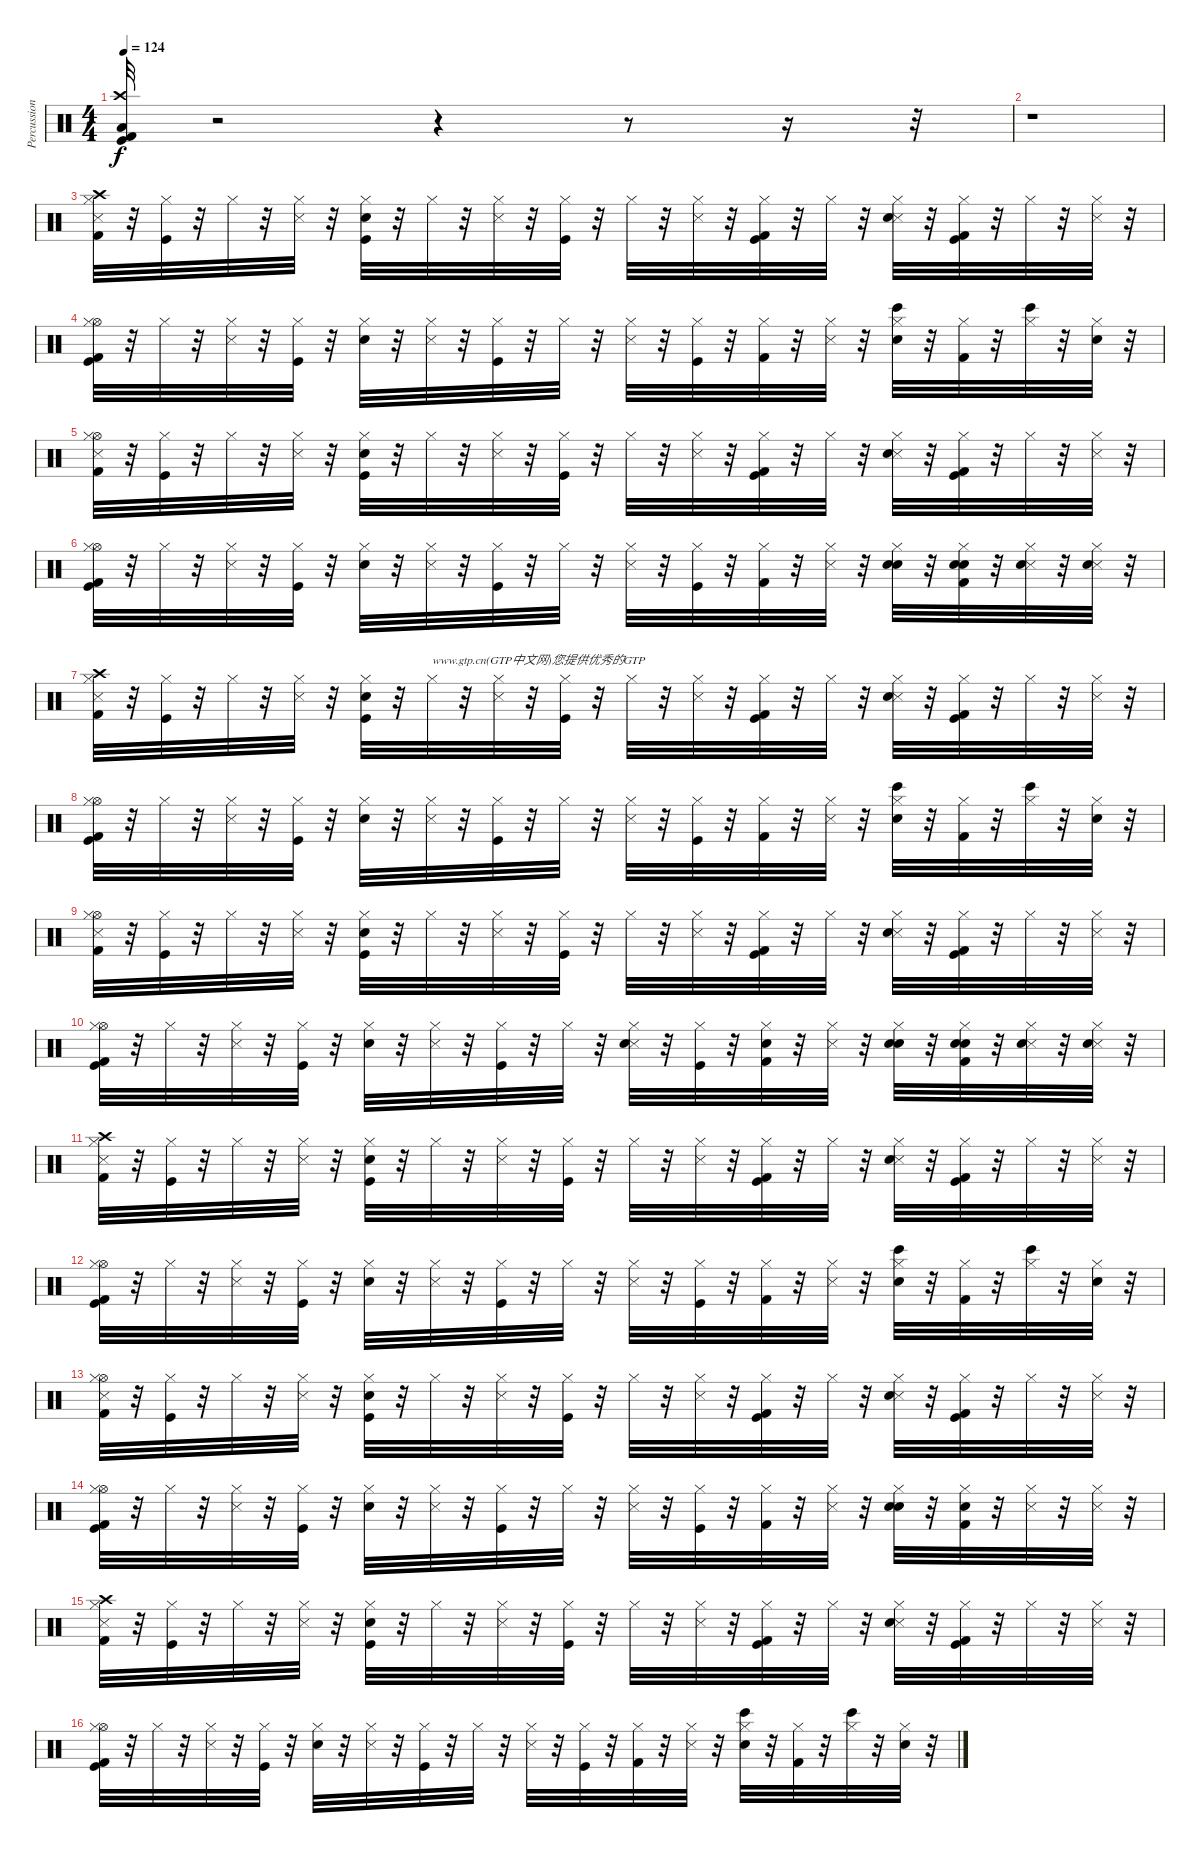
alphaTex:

\track ("Percussions" "Percussion") {instrument percussion}
\staff {score}
\articulation defaults
\ts (4 4)
\tempo 124
\clef neutral
\ks c
("Kick (hit)" "Crash high (hit)" "Kick (hit) 2" "Low Tom (hit)").32{dy f} r.2 r.4 r.8 r.16 r.32 |
r.1 |
("Metronome (hit)" "Crash high (hit)" "Kick (hit) 2" "Hi-Hat (closed)").32 r.32 ("Kick (hit)" "Hi-Hat (closed)").32 r.32 "Hi-Hat (closed)".32 r.32 ("Metronome (hit)" "Hi-Hat (closed)").32 r.32 ("Kick (hit)" "Hi-Hat (closed)" "Electric Snare (hit)").32 r.32 "Hi-Hat (closed)".32 r.32 ("Metronome (hit)" "Hi-Hat (closed)").32 r.32 ("Kick (hit)" "Hi-Hat (closed)").32 r.32 "Hi-Hat (closed)".32 r.32 ("Metronome (hit)" "Hi-Hat (closed)").32 r.32 ("Kick (hit)" "Hi-Hat (closed)" "Kick (hit) 2").32 r.32 "Hi-Hat (closed)".32 r.32 ("Metronome (hit)" "Hi-Hat (closed)" "Electric Snare (hit)").32 r.32 ("Kick (hit)" "Kick (hit) 2" "Hi-Hat (closed)").32 r.32 "Hi-Hat (closed)".32 r.32 ("Metronome (hit)" "Hi-Hat (closed)").32 r.32 |
("Kick (hit)" "Hi-Hat (open)" "Kick (hit) 2" "Hi-Hat (closed)").32 r.32 "Hi-Hat (closed)".32 r.32 ("Metronome (hit)" "Hi-Hat (closed)").32 r.32 ("Kick (hit)" "Hi-Hat (closed)").32 r.32 ("Electric Snare (hit)" "Hi-Hat (closed)").32 r.32 ("Metronome (hit)" "Hi-Hat (closed)").32 r.32 ("Kick (hit)" "Hi-Hat (closed)").32 r.32 "Hi-Hat (closed)".32 r.32 ("Metronome (hit)" "Hi-Hat (closed)").32 r.32 ("Kick (hit)" "Hi-Hat (closed)").32 r.32 ("Hi-Hat (closed)" "Kick (hit) 2").32 r.32 ("Metronome (hit)" "Hi-Hat (closed)").32 r.32 ("Bongo High (hit)" "Electric Snare (hit)" "Hi-Hat (closed)").32 r.32 ("Kick (hit) 2" "Hi-Hat (closed)").32 r.32 ("Bongo High (hit)" "Hi-Hat (closed)").32 r.32 ("Hi-Hat (closed)" "Electric Snare (hit)").32 r.32 |
("Metronome (hit)" "Kick (hit) 2" "Hi-Hat (open)" "Hi-Hat (closed)").32 r.32 ("Kick (hit)" "Hi-Hat (closed)").32 r.32 "Hi-Hat (closed)".32 r.32 ("Metronome (hit)" "Hi-Hat (closed)").32 r.32 ("Kick (hit)" "Electric Snare (hit)" "Hi-Hat (closed)").32 r.32 "Hi-Hat (closed)".32 r.32 ("Metronome (hit)" "Hi-Hat (closed)").32 r.32 ("Kick (hit)" "Hi-Hat (closed)").32 r.32 "Hi-Hat (closed)".32 r.32 ("Metronome (hit)" "Hi-Hat (closed)").32 r.32 ("Kick (hit)" "Kick (hit) 2" "Hi-Hat (closed)").32 r.32 "Hi-Hat (closed)".32 r.32 ("Metronome (hit)" "Electric Snare (hit)" "Hi-Hat (closed)").32 r.32 ("Kick (hit)" "Kick (hit) 2" "Hi-Hat (closed)").32 r.32 "Hi-Hat (closed)".32 r.32 ("Metronome (hit)" "Hi-Hat (closed)").32 r.32 |
("Kick (hit)" "Kick (hit) 2" "Hi-Hat (open)" "Hi-Hat (closed)").32 r.32 "Hi-Hat (closed)".32 r.32 ("Metronome (hit)" "Hi-Hat (closed)").32 r.32 ("Kick (hit)" "Hi-Hat (closed)").32 r.32 ("Hi-Hat (closed)" "Electric Snare (hit)").32 r.32 ("Metronome (hit)" "Hi-Hat (closed)").32 r.32 ("Kick (hit)" "Hi-Hat (closed)").32 r.32 "Hi-Hat (closed)".32 r.32 ("Metronome (hit)" "Hi-Hat (closed)").32 r.32 ("Kick (hit)" "Hi-Hat (closed)").32 r.32 ("Kick (hit) 2" "Hi-Hat (closed)").32 r.32 ("Metronome (hit)" "Hi-Hat (closed)").32 r.32 ("Hand Clap (hit)" "Hi-Hat (closed)" "Electric Snare (hit)").32 r.32 ("Hand Clap (hit)" "Electric Snare (hit)" "Kick (hit) 2" "Hi-Hat (closed)").32 r.32 ("Snare (side stick) 3" "Electric Snare (hit)" "Hi-Hat (closed)").32 r.32 ("Snare (side stick) 3" "Electric Snare (hit)" "Hi-Hat (closed)").32 r.32 |
("Metronome (hit)" "Crash high (hit)" "Kick (hit) 2" "Hi-Hat (closed)").32 r.32 ("Kick (hit)" "Hi-Hat (closed)").32 r.32 "Hi-Hat (closed)".32 r.32 ("Metronome (hit)" "Hi-Hat (closed)").32 r.32 ("Kick (hit)" "Hi-Hat (closed)" "Electric Snare (hit)").32 r.32 "Hi-Hat (closed)".32{txt "www.gtp.cn(GTP中文网)您提供优秀的GTP"} r.32 ("Metronome (hit)" "Hi-Hat (closed)").32 r.32 ("Kick (hit)" "Hi-Hat (closed)").32 r.32 "Hi-Hat (closed)".32 r.32 ("Metronome (hit)" "Hi-Hat (closed)").32 r.32 ("Kick (hit)" "Hi-Hat (closed)" "Kick (hit) 2").32 r.32 "Hi-Hat (closed)".32 r.32 ("Metronome (hit)" "Hi-Hat (closed)" "Electric Snare (hit)").32 r.32 ("Kick (hit)" "Kick (hit) 2" "Hi-Hat (closed)").32 r.32 "Hi-Hat (closed)".32 r.32 ("Metronome (hit)" "Hi-Hat (closed)").32 r.32 |
("Kick (hit)" "Hi-Hat (open)" "Kick (hit) 2" "Hi-Hat (closed)").32 r.32 "Hi-Hat (closed)".32 r.32 ("Metronome (hit)" "Hi-Hat (closed)").32 r.32 ("Kick (hit)" "Hi-Hat (closed)").32 r.32 ("Electric Snare (hit)" "Hi-Hat (closed)").32 r.32 ("Metronome (hit)" "Hi-Hat (closed)").32 r.32 ("Kick (hit)" "Hi-Hat (closed)").32 r.32 "Hi-Hat (closed)".32 r.32 ("Metronome (hit)" "Hi-Hat (closed)").32 r.32 ("Kick (hit)" "Hi-Hat (closed)").32 r.32 ("Hi-Hat (closed)" "Kick (hit) 2").32 r.32 ("Metronome (hit)" "Hi-Hat (closed)").32 r.32 ("Bongo High (hit)" "Electric Snare (hit)" "Hi-Hat (closed)").32 r.32 ("Kick (hit) 2" "Hi-Hat (closed)").32 r.32 ("Bongo High (hit)" "Hi-Hat (closed)").32 r.32 ("Hi-Hat (closed)" "Electric Snare (hit)").32 r.32 |
("Metronome (hit)" "Kick (hit) 2" "Hi-Hat (open)" "Hi-Hat (closed)").32 r.32 ("Kick (hit)" "Hi-Hat (closed)").32 r.32 "Hi-Hat (closed)".32 r.32 ("Metronome (hit)" "Hi-Hat (closed)").32 r.32 ("Kick (hit)" "Electric Snare (hit)" "Hi-Hat (closed)").32 r.32 "Hi-Hat (closed)".32 r.32 ("Metronome (hit)" "Hi-Hat (closed)").32 r.32 ("Kick (hit)" "Hi-Hat (closed)").32 r.32 "Hi-Hat (closed)".32 r.32 ("Metronome (hit)" "Hi-Hat (closed)").32 r.32 ("Kick (hit)" "Kick (hit) 2" "Hi-Hat (closed)").32 r.32 "Hi-Hat (closed)".32 r.32 ("Metronome (hit)" "Electric Snare (hit)" "Hi-Hat (closed)").32 r.32 ("Kick (hit)" "Kick (hit) 2" "Hi-Hat (closed)").32 r.32 "Hi-Hat (closed)".32 r.32 ("Metronome (hit)" "Hi-Hat (closed)").32 r.32 |
("Kick (hit)" "Kick (hit) 2" "Hi-Hat (open)" "Hi-Hat (closed)").32 r.32 "Hi-Hat (closed)".32 r.32 ("Metronome (hit)" "Hi-Hat (closed)").32 r.32 ("Kick (hit)" "Hi-Hat (closed)").32 r.32 ("Hi-Hat (closed)" "Electric Snare (hit)").32 r.32 ("Metronome (hit)" "Hi-Hat (closed)").32 r.32 ("Kick (hit)" "Hi-Hat (closed)").32 r.32 "Hi-Hat (closed)".32 r.32 ("Metronome (hit)" "Electric Snare (hit)" "Hi-Hat (closed)").32 r.32 ("Kick (hit)" "Hi-Hat (closed)").32 r.32 ("Electric Snare (hit)" "Kick (hit) 2" "Hi-Hat (closed)").32 r.32 ("Metronome (hit)" "Hi-Hat (closed)").32 r.32 ("Hand Clap (hit)" "Hi-Hat (closed)" "Electric Snare (hit)").32 r.32 ("Hand Clap (hit)" "Electric Snare (hit)" "Kick (hit) 2" "Hi-Hat (closed)").32 r.32 ("Snare (side stick) 3" "Electric Snare (hit)" "Hi-Hat (closed)").32 r.32 ("Snare (side stick) 3" "Electric Snare (hit)" "Hi-Hat (closed)").32 r.32 |
("Metronome (hit)" "Crash high (hit)" "Kick (hit) 2" "Hi-Hat (closed)").32 r.32 ("Kick (hit)" "Hi-Hat (closed)").32 r.32 "Hi-Hat (closed)".32 r.32 ("Metronome (hit)" "Hi-Hat (closed)").32 r.32 ("Kick (hit)" "Hi-Hat (closed)" "Electric Snare (hit)").32 r.32 "Hi-Hat (closed)".32 r.32 ("Metronome (hit)" "Hi-Hat (closed)").32 r.32 ("Kick (hit)" "Hi-Hat (closed)").32 r.32 "Hi-Hat (closed)".32 r.32 ("Metronome (hit)" "Hi-Hat (closed)").32 r.32 ("Kick (hit)" "Hi-Hat (closed)" "Kick (hit) 2").32 r.32 "Hi-Hat (closed)".32 r.32 ("Metronome (hit)" "Hi-Hat (closed)" "Electric Snare (hit)").32 r.32 ("Kick (hit)" "Kick (hit) 2" "Hi-Hat (closed)").32 r.32 "Hi-Hat (closed)".32 r.32 ("Metronome (hit)" "Hi-Hat (closed)").32 r.32 |
("Kick (hit)" "Hi-Hat (open)" "Kick (hit) 2" "Hi-Hat (closed)").32 r.32 "Hi-Hat (closed)".32 r.32 ("Metronome (hit)" "Hi-Hat (closed)").32 r.32 ("Kick (hit)" "Hi-Hat (closed)").32 r.32 ("Electric Snare (hit)" "Hi-Hat (closed)").32 r.32 ("Metronome (hit)" "Hi-Hat (closed)").32 r.32 ("Kick (hit)" "Hi-Hat (closed)").32 r.32 "Hi-Hat (closed)".32 r.32 ("Metronome (hit)" "Hi-Hat (closed)").32 r.32 ("Kick (hit)" "Hi-Hat (closed)").32 r.32 ("Hi-Hat (closed)" "Kick (hit) 2").32 r.32 ("Metronome (hit)" "Hi-Hat (closed)").32 r.32 ("Bongo High (hit)" "Electric Snare (hit)" "Hi-Hat (closed)").32 r.32 ("Kick (hit) 2" "Hi-Hat (closed)").32 r.32 ("Bongo High (hit)" "Hi-Hat (closed)").32 r.32 ("Hi-Hat (closed)" "Electric Snare (hit)").32 r.32 |
("Metronome (hit)" "Kick (hit) 2" "Hi-Hat (open)" "Hi-Hat (closed)").32 r.32 ("Kick (hit)" "Hi-Hat (closed)").32 r.32 "Hi-Hat (closed)".32 r.32 ("Metronome (hit)" "Hi-Hat (closed)").32 r.32 ("Kick (hit)" "Electric Snare (hit)" "Hi-Hat (closed)").32 r.32 "Hi-Hat (closed)".32 r.32 ("Metronome (hit)" "Hi-Hat (closed)").32 r.32 ("Kick (hit)" "Hi-Hat (closed)").32 r.32 "Hi-Hat (closed)".32 r.32 ("Metronome (hit)" "Hi-Hat (closed)").32 r.32 ("Kick (hit)" "Kick (hit) 2" "Hi-Hat (closed)").32 r.32 "Hi-Hat (closed)".32 r.32 ("Metronome (hit)" "Electric Snare (hit)" "Hi-Hat (closed)").32 r.32 ("Kick (hit)" "Kick (hit) 2" "Hi-Hat (closed)").32 r.32 "Hi-Hat (closed)".32 r.32 ("Metronome (hit)" "Hi-Hat (closed)").32 r.32 |
("Kick (hit)" "Hi-Hat (open)" "Kick (hit) 2" "Hi-Hat (closed)").32 r.32 "Hi-Hat (closed)".32 r.32 ("Metronome (hit)" "Hi-Hat (closed)").32 r.32 ("Kick (hit)" "Hi-Hat (closed)").32 r.32 ("Hi-Hat (closed)" "Electric Snare (hit)").32 r.32 ("Metronome (hit)" "Hi-Hat (closed)").32 r.32 ("Kick (hit)" "Hi-Hat (closed)").32 r.32 "Hi-Hat (closed)".32 r.32 ("Metronome (hit)" "Hi-Hat (closed)").32 r.32 ("Kick (hit)" "Hi-Hat (closed)").32 r.32 ("Kick (hit) 2" "Hi-Hat (closed)").32 r.32 ("Metronome (hit)" "Hi-Hat (closed)").32 r.32 ("Hand Clap (hit)" "Hi-Hat (closed)" "Electric Snare (hit)").32 r.32 ("Hand Clap (hit)" "Kick (hit) 2" "Hi-Hat (closed)").32 r.32 ("Snare (side stick) 3" "Hi-Hat (closed)").32 r.32 ("Snare (side stick) 3" "Hi-Hat (closed)").32 r.32 |
("Metronome (hit)" "Crash high (hit)" "Kick (hit) 2" "Hi-Hat (closed)").32 r.32 ("Kick (hit)" "Hi-Hat (closed)").32 r.32 "Hi-Hat (closed)".32 r.32 ("Metronome (hit)" "Hi-Hat (closed)").32 r.32 ("Kick (hit)" "Hi-Hat (closed)" "Electric Snare (hit)").32 r.32 "Hi-Hat (closed)".32 r.32 ("Metronome (hit)" "Hi-Hat (closed)").32 r.32 ("Kick (hit)" "Hi-Hat (closed)").32 r.32 "Hi-Hat (closed)".32 r.32 ("Metronome (hit)" "Hi-Hat (closed)").32 r.32 ("Kick (hit)" "Hi-Hat (closed)" "Kick (hit) 2").32 r.32 "Hi-Hat (closed)".32 r.32 ("Metronome (hit)" "Hi-Hat (closed)" "Electric Snare (hit)").32 r.32 ("Kick (hit)" "Kick (hit) 2" "Hi-Hat (closed)").32 r.32 "Hi-Hat (closed)".32 r.32 ("Metronome (hit)" "Hi-Hat (closed)").32 r.32 |
("Kick (hit)" "Hi-Hat (open)" "Kick (hit) 2" "Hi-Hat (closed)").32 r.32 "Hi-Hat (closed)".32 r.32 ("Metronome (hit)" "Hi-Hat (closed)").32 r.32 ("Kick (hit)" "Hi-Hat (closed)").32 r.32 ("Electric Snare (hit)" "Hi-Hat (closed)").32 r.32 ("Metronome (hit)" "Hi-Hat (closed)").32 r.32 ("Kick (hit)" "Hi-Hat (closed)").32 r.32 "Hi-Hat (closed)".32 r.32 ("Metronome (hit)" "Hi-Hat (closed)").32 r.32 ("Kick (hit)" "Hi-Hat (closed)").32 r.32 ("Hi-Hat (closed)" "Kick (hit) 2").32 r.32 ("Metronome (hit)" "Hi-Hat (closed)").32 r.32 ("Bongo High (hit)" "Electric Snare (hit)" "Hi-Hat (closed)").32 r.32 ("Kick (hit) 2" "Hi-Hat (closed)").32 r.32 ("Bongo High (hit)" "Hi-Hat (closed)").32 r.32 ("Hi-Hat (closed)" "Electric Snare (hit)").32 r.32
